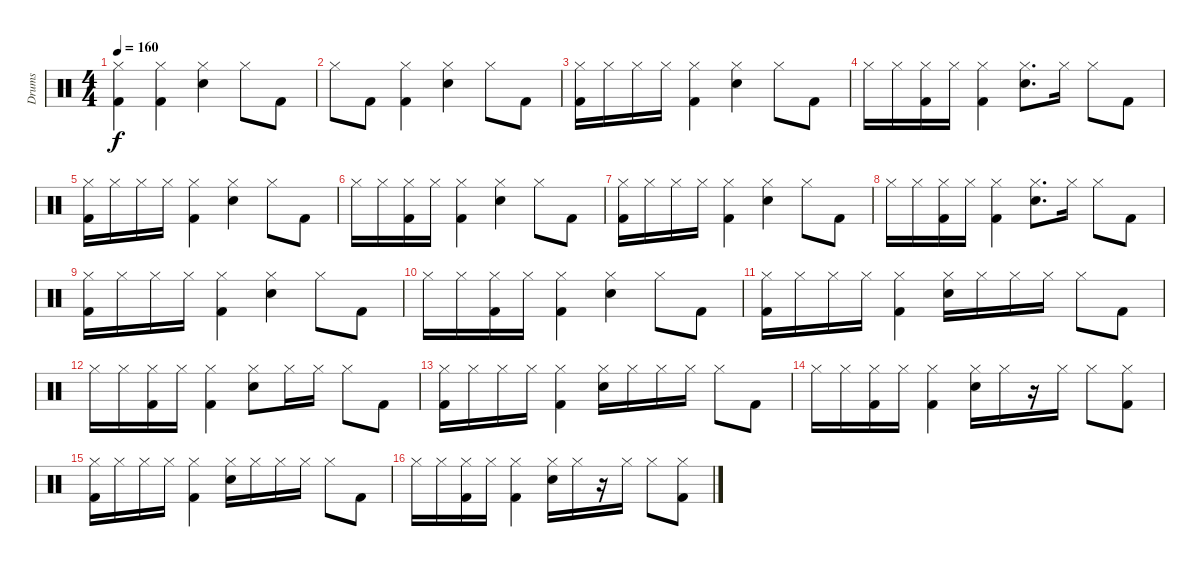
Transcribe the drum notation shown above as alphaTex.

\track ("Drums" "Drums") {instrument percussion}
\staff {score}
\articulation defaults
\ts (4 4)
\tempo 160
\clef neutral
\ks c
("Kick (hit) 2" "Hi-Hat (closed)").4{dy f} ("Kick (hit) 2" "Hi-Hat (closed)").4 ("Electric Snare (hit)" "Hi-Hat (closed)").4 "Hi-Hat (closed)".8 "Kick (hit) 2".8 |
"Hi-Hat (closed)".8 "Kick (hit) 2".8 ("Kick (hit) 2" "Hi-Hat (closed)").4 ("Electric Snare (hit)" "Hi-Hat (closed)").4 "Hi-Hat (closed)".8 "Kick (hit) 2".8 |
("Kick (hit) 2" "Hi-Hat (closed)").16 "Hi-Hat (closed)".16 "Hi-Hat (closed)".16 "Hi-Hat (closed)".16 ("Kick (hit) 2" "Hi-Hat (closed)").4 ("Electric Snare (hit)" "Hi-Hat (closed)").4 "Hi-Hat (closed)".8 "Kick (hit) 2".8 |
"Hi-Hat (closed)".16 "Hi-Hat (closed)".16 ("Hi-Hat (closed)" "Kick (hit) 2").16 "Hi-Hat (closed)".16 ("Kick (hit) 2" "Hi-Hat (closed)").4 ("Electric Snare (hit)" "Hi-Hat (closed)").8{d} "Hi-Hat (closed)".16 "Hi-Hat (closed)".8 "Kick (hit) 2".8 |
("Kick (hit) 2" "Hi-Hat (closed)").16 "Hi-Hat (closed)".16 "Hi-Hat (closed)".16 "Hi-Hat (closed)".16 ("Kick (hit) 2" "Hi-Hat (closed)").4 ("Electric Snare (hit)" "Hi-Hat (closed)").4 "Hi-Hat (closed)".8 "Kick (hit) 2".8 |
"Hi-Hat (closed)".16 "Hi-Hat (closed)".16 ("Hi-Hat (closed)" "Kick (hit) 2").16 "Hi-Hat (closed)".16 ("Kick (hit) 2" "Hi-Hat (closed)").4 ("Electric Snare (hit)" "Hi-Hat (closed)").4 "Hi-Hat (closed)".8 "Kick (hit) 2".8 |
("Kick (hit) 2" "Hi-Hat (closed)").16 "Hi-Hat (closed)".16 "Hi-Hat (closed)".16 "Hi-Hat (closed)".16 ("Kick (hit) 2" "Hi-Hat (closed)").4 ("Electric Snare (hit)" "Hi-Hat (closed)").4 "Hi-Hat (closed)".8 "Kick (hit) 2".8 |
"Hi-Hat (closed)".16 "Hi-Hat (closed)".16 ("Hi-Hat (closed)" "Kick (hit) 2").16 "Hi-Hat (closed)".16 ("Kick (hit) 2" "Hi-Hat (closed)").4 ("Electric Snare (hit)" "Hi-Hat (closed)").8{d} "Hi-Hat (closed)".16 "Hi-Hat (closed)".8 "Kick (hit) 2".8 |
("Kick (hit) 2" "Hi-Hat (closed)").16 "Hi-Hat (closed)".16 "Hi-Hat (closed)".16 "Hi-Hat (closed)".16 ("Kick (hit) 2" "Hi-Hat (closed)").4 ("Electric Snare (hit)" "Hi-Hat (closed)").4 "Hi-Hat (closed)".8 "Kick (hit) 2".8 |
"Hi-Hat (closed)".16 "Hi-Hat (closed)".16 ("Hi-Hat (closed)" "Kick (hit) 2").16 "Hi-Hat (closed)".16 ("Kick (hit) 2" "Hi-Hat (closed)").4 ("Electric Snare (hit)" "Hi-Hat (closed)").4 "Hi-Hat (closed)".8 "Kick (hit) 2".8 |
("Kick (hit) 2" "Hi-Hat (closed)").16 "Hi-Hat (closed)".16 "Hi-Hat (closed)".16 "Hi-Hat (closed)".16 ("Kick (hit) 2" "Hi-Hat (closed)").4 ("Electric Snare (hit)" "Hi-Hat (closed)").16 "Hi-Hat (closed)".16 "Hi-Hat (closed)".16 "Hi-Hat (closed)".16 "Hi-Hat (closed)".8 "Kick (hit) 2".8 |
"Hi-Hat (closed)".16 "Hi-Hat (closed)".16 ("Hi-Hat (closed)" "Kick (hit) 2").16 "Hi-Hat (closed)".16 ("Kick (hit) 2" "Hi-Hat (closed)").4 ("Electric Snare (hit)" "Hi-Hat (closed)").8 "Hi-Hat (closed)".16 "Hi-Hat (closed)".16 "Hi-Hat (closed)".8 "Kick (hit) 2".8 |
("Kick (hit) 2" "Hi-Hat (closed)").16 "Hi-Hat (closed)".16 "Hi-Hat (closed)".16 "Hi-Hat (closed)".16 ("Kick (hit) 2" "Hi-Hat (closed)").4 ("Electric Snare (hit)" "Hi-Hat (closed)").16 "Hi-Hat (closed)".16 "Hi-Hat (closed)".16 "Hi-Hat (closed)".16 "Hi-Hat (closed)".8 "Kick (hit) 2".8 |
"Hi-Hat (closed)".16 "Hi-Hat (closed)".16 ("Hi-Hat (closed)" "Kick (hit) 2").16 "Hi-Hat (closed)".16 ("Kick (hit) 2" "Hi-Hat (closed)").4 ("Electric Snare (hit)" "Hi-Hat (closed)").16 "Hi-Hat (closed)".16 r.16 "Hi-Hat (closed)".16 "Hi-Hat (closed)".8 ("Hi-Hat (closed)" "Kick (hit) 2").8 |
("Kick (hit) 2" "Hi-Hat (closed)").16 "Hi-Hat (closed)".16 "Hi-Hat (closed)".16 "Hi-Hat (closed)".16 ("Kick (hit) 2" "Hi-Hat (closed)").4 ("Electric Snare (hit)" "Hi-Hat (closed)").16 "Hi-Hat (closed)".16 "Hi-Hat (closed)".16 "Hi-Hat (closed)".16 "Hi-Hat (closed)".8 "Kick (hit) 2".8 |
"Hi-Hat (closed)".16 "Hi-Hat (closed)".16 ("Hi-Hat (closed)" "Kick (hit) 2").16 "Hi-Hat (closed)".16 ("Kick (hit) 2" "Hi-Hat (closed)").4 ("Electric Snare (hit)" "Hi-Hat (closed)").16 "Hi-Hat (closed)".16 r.16 "Hi-Hat (closed)".16 "Hi-Hat (closed)".8 ("Hi-Hat (closed)" "Kick (hit) 2").8
